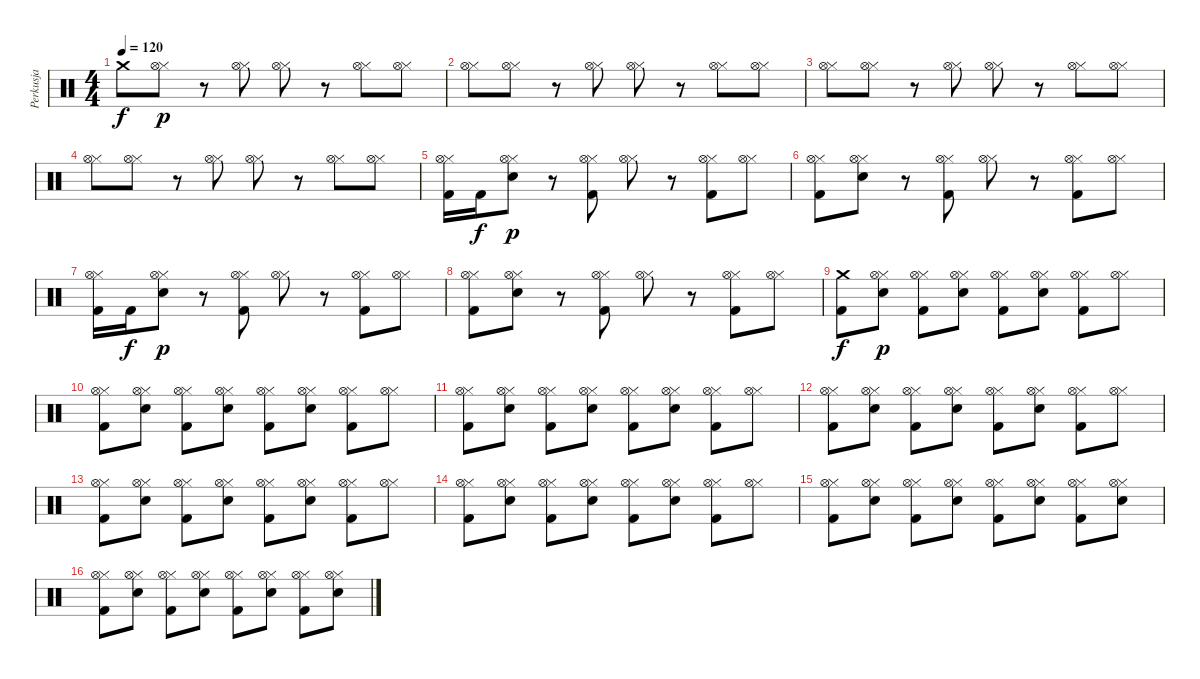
\track ("Perkusja" "Perkusja") {instrument percussion}
\staff {score}
\articulation defaults
\ts (4 4)
\tempo 120
\clef neutral
\ks c "Crash medium (hit)".8{dy f}
("Hi-Hat (closed)" "Hi-Hat (open)").8{dy p} r.8 ("Hi-Hat (closed)" "Hi-Hat (open)").8 ("Hi-Hat (closed)" "Hi-Hat (open)").8 r.8 ("Hi-Hat (closed)" "Hi-Hat (open)").8 ("Hi-Hat (closed)" "Hi-Hat (open)").8 |
("Hi-Hat (closed)" "Hi-Hat (open)").8 ("Hi-Hat (closed)" "Hi-Hat (open)").8 r.8 ("Hi-Hat (closed)" "Hi-Hat (open)").8 ("Hi-Hat (closed)" "Hi-Hat (open)").8 r.8 ("Hi-Hat (closed)" "Hi-Hat (open)").8 ("Hi-Hat (closed)" "Hi-Hat (open)").8 |
("Hi-Hat (closed)" "Hi-Hat (open)").8 ("Hi-Hat (closed)" "Hi-Hat (open)").8 r.8 ("Hi-Hat (closed)" "Hi-Hat (open)").8 ("Hi-Hat (closed)" "Hi-Hat (open)").8 r.8 ("Hi-Hat (closed)" "Hi-Hat (open)").8 ("Hi-Hat (closed)" "Hi-Hat (open)").8 |
("Hi-Hat (closed)" "Hi-Hat (open)").8 ("Hi-Hat (closed)" "Hi-Hat (open)").8 r.8 ("Hi-Hat (closed)" "Hi-Hat (open)").8 ("Hi-Hat (closed)" "Hi-Hat (open)").8 r.8 ("Hi-Hat (closed)" "Hi-Hat (open)").8 ("Hi-Hat (closed)" "Hi-Hat (open)").8 |
("Kick (hit) 2" "Hi-Hat (closed)" "Hi-Hat (open)").16 "Kick (hit) 2".16{dy f} ("Electric Snare (hit)" "Hi-Hat (closed)" "Hi-Hat (open)").8{dy p} r.8 ("Kick (hit) 2" "Hi-Hat (closed)" "Hi-Hat (open)").8 ("Hi-Hat (closed)" "Hi-Hat (open)").8 r.8 ("Kick (hit) 2" "Hi-Hat (closed)" "Hi-Hat (open)").8 ("Hi-Hat (closed)" "Hi-Hat (open)").8 |
("Kick (hit) 2" "Hi-Hat (closed)" "Hi-Hat (open)").8 ("Electric Snare (hit)" "Hi-Hat (closed)" "Hi-Hat (open)").8 r.8 ("Kick (hit) 2" "Hi-Hat (closed)" "Hi-Hat (open)").8 ("Hi-Hat (closed)" "Hi-Hat (open)").8 r.8 ("Kick (hit) 2" "Hi-Hat (closed)" "Hi-Hat (open)").8 ("Hi-Hat (closed)" "Hi-Hat (open)").8 |
("Kick (hit) 2" "Hi-Hat (closed)" "Hi-Hat (open)").16 "Kick (hit) 2".16{dy f} ("Electric Snare (hit)" "Hi-Hat (closed)" "Hi-Hat (open)").8{dy p} r.8 ("Kick (hit) 2" "Hi-Hat (closed)" "Hi-Hat (open)").8 ("Hi-Hat (closed)" "Hi-Hat (open)").8 r.8 ("Kick (hit) 2" "Hi-Hat (closed)" "Hi-Hat (open)").8 ("Hi-Hat (closed)" "Hi-Hat (open)").8 |
("Kick (hit) 2" "Hi-Hat (closed)" "Hi-Hat (open)").8 ("Electric Snare (hit)" "Hi-Hat (closed)" "Hi-Hat (open)").8 r.8 ("Kick (hit) 2" "Hi-Hat (closed)" "Hi-Hat (open)").8 ("Hi-Hat (closed)" "Hi-Hat (open)").8 r.8 ("Kick (hit) 2" "Hi-Hat (closed)" "Hi-Hat (open)").8 ("Hi-Hat (closed)" "Hi-Hat (open)").8 |
("Kick (hit) 2" "Crash medium (hit)").8{dy f} ("Electric Snare (hit)" "Hi-Hat (closed)" "Hi-Hat (open)").8{dy p} ("Kick (hit) 2" "Hi-Hat (closed)" "Hi-Hat (open)").8 ("Electric Snare (hit)" "Hi-Hat (closed)" "Hi-Hat (open)").8 ("Kick (hit) 2" "Hi-Hat (closed)" "Hi-Hat (open)").8 ("Electric Snare (hit)" "Hi-Hat (closed)" "Hi-Hat (open)").8 ("Kick (hit) 2" "Hi-Hat (closed)" "Hi-Hat (open)").8 ("Hi-Hat (closed)" "Hi-Hat (open)").8 |
("Kick (hit) 2" "Hi-Hat (closed)" "Hi-Hat (open)").8 ("Electric Snare (hit)" "Hi-Hat (closed)" "Hi-Hat (open)").8 ("Kick (hit) 2" "Hi-Hat (closed)" "Hi-Hat (open)").8 ("Electric Snare (hit)" "Hi-Hat (closed)" "Hi-Hat (open)").8 ("Kick (hit) 2" "Hi-Hat (closed)" "Hi-Hat (open)").8 ("Electric Snare (hit)" "Hi-Hat (closed)" "Hi-Hat (open)").8 ("Kick (hit) 2" "Hi-Hat (closed)" "Hi-Hat (open)").8 ("Hi-Hat (closed)" "Hi-Hat (open)").8 |
("Kick (hit) 2" "Hi-Hat (closed)" "Hi-Hat (open)").8 ("Electric Snare (hit)" "Hi-Hat (closed)" "Hi-Hat (open)").8 ("Kick (hit) 2" "Hi-Hat (closed)" "Hi-Hat (open)").8 ("Electric Snare (hit)" "Hi-Hat (closed)" "Hi-Hat (open)").8 ("Kick (hit) 2" "Hi-Hat (closed)" "Hi-Hat (open)").8 ("Electric Snare (hit)" "Hi-Hat (closed)" "Hi-Hat (open)").8 ("Kick (hit) 2" "Hi-Hat (closed)" "Hi-Hat (open)").8 ("Hi-Hat (closed)" "Hi-Hat (open)").8 |
("Kick (hit) 2" "Hi-Hat (closed)" "Hi-Hat (open)").8 ("Electric Snare (hit)" "Hi-Hat (closed)" "Hi-Hat (open)").8 ("Kick (hit) 2" "Hi-Hat (closed)" "Hi-Hat (open)").8 ("Electric Snare (hit)" "Hi-Hat (closed)" "Hi-Hat (open)").8 ("Kick (hit) 2" "Hi-Hat (closed)" "Hi-Hat (open)").8 ("Electric Snare (hit)" "Hi-Hat (closed)" "Hi-Hat (open)").8 ("Kick (hit) 2" "Hi-Hat (closed)" "Hi-Hat (open)").8 ("Hi-Hat (closed)" "Hi-Hat (open)").8 |
("Kick (hit) 2" "Hi-Hat (closed)" "Hi-Hat (open)").8 ("Electric Snare (hit)" "Hi-Hat (closed)" "Hi-Hat (open)").8 ("Kick (hit) 2" "Hi-Hat (closed)" "Hi-Hat (open)").8 ("Electric Snare (hit)" "Hi-Hat (closed)" "Hi-Hat (open)").8 ("Kick (hit) 2" "Hi-Hat (closed)" "Hi-Hat (open)").8 ("Electric Snare (hit)" "Hi-Hat (closed)" "Hi-Hat (open)").8 ("Kick (hit) 2" "Hi-Hat (closed)" "Hi-Hat (open)").8 ("Hi-Hat (closed)" "Hi-Hat (open)").8 |
("Kick (hit) 2" "Hi-Hat (closed)" "Hi-Hat (open)").8 ("Electric Snare (hit)" "Hi-Hat (closed)" "Hi-Hat (open)").8 ("Kick (hit) 2" "Hi-Hat (closed)" "Hi-Hat (open)").8 ("Electric Snare (hit)" "Hi-Hat (closed)" "Hi-Hat (open)").8 ("Kick (hit) 2" "Hi-Hat (closed)" "Hi-Hat (open)").8 ("Electric Snare (hit)" "Hi-Hat (closed)" "Hi-Hat (open)").8 ("Kick (hit) 2" "Hi-Hat (closed)" "Hi-Hat (open)").8 ("Hi-Hat (closed)" "Hi-Hat (open)").8 |
("Kick (hit) 2" "Hi-Hat (closed)" "Hi-Hat (open)").8 ("Electric Snare (hit)" "Hi-Hat (closed)" "Hi-Hat (open)").8 ("Kick (hit) 2" "Hi-Hat (closed)" "Hi-Hat (open)").8 ("Electric Snare (hit)" "Hi-Hat (closed)" "Hi-Hat (open)").8 ("Kick (hit) 2" "Hi-Hat (closed)" "Hi-Hat (open)").8 ("Electric Snare (hit)" "Hi-Hat (closed)" "Hi-Hat (open)").8 ("Kick (hit) 2" "Hi-Hat (closed)" "Hi-Hat (open)").8 ("Electric Snare (hit)" "Hi-Hat (closed)" "Hi-Hat (open)").8 |
("Kick (hit) 2" "Hi-Hat (closed)" "Hi-Hat (open)").8 ("Electric Snare (hit)" "Hi-Hat (closed)" "Hi-Hat (open)").8 ("Kick (hit) 2" "Hi-Hat (closed)" "Hi-Hat (open)").8 ("Electric Snare (hit)" "Hi-Hat (closed)" "Hi-Hat (open)").8 ("Kick (hit) 2" "Hi-Hat (closed)" "Hi-Hat (open)").8 ("Electric Snare (hit)" "Hi-Hat (closed)" "Hi-Hat (open)").8 ("Kick (hit) 2" "Hi-Hat (closed)" "Hi-Hat (open)").8 ("Electric Snare (hit)" "Hi-Hat (closed)" "Hi-Hat (open)").8
